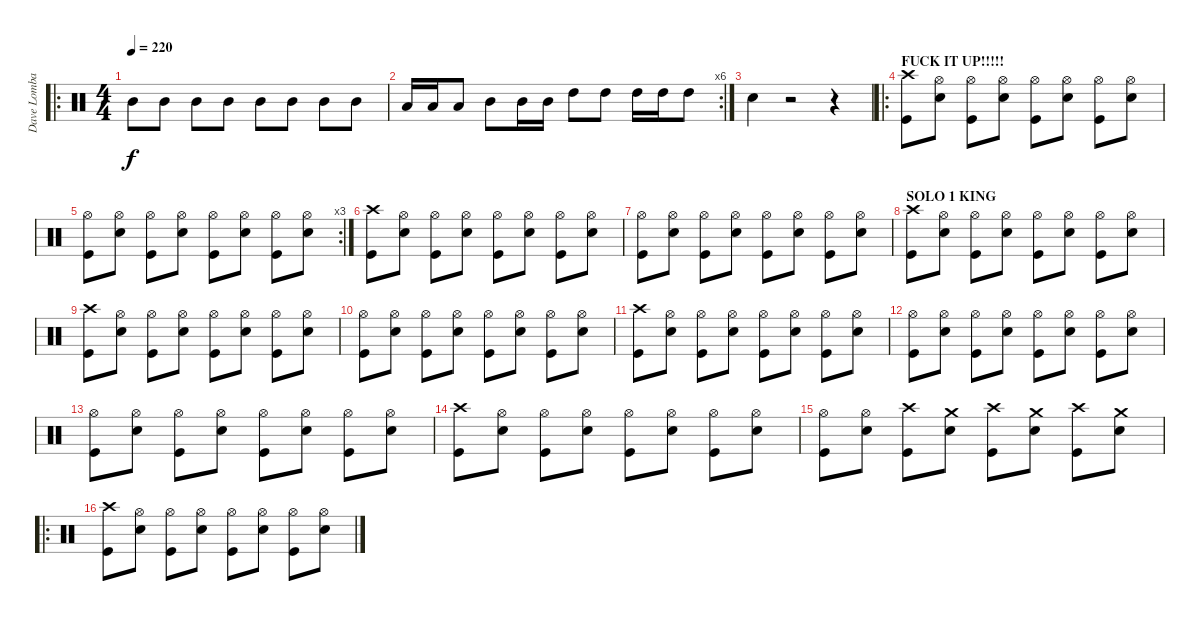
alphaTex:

\track ("Dave Lombardo" "Dave Lomba") {instrument percussion}
\staff {score}
\articulation defaults
\ro
\ts (4 4)
\tempo 220
\clef neutral
\ks c "Mid Tom (hit)".8{dy f} "Mid Tom (hit)".8 "Mid Tom (hit)".8 "Mid Tom (hit)".8 "Mid Tom (hit)".8 "Mid Tom (hit)".8 "Mid Tom (hit)".8 "Mid Tom (hit)".8
|
\rc 6 "Low Tom (hit)".16 "Low Tom (hit)".16 "Low Tom (hit)".8 "Mid Tom (hit)".8 "Mid Tom (hit)".16 "Mid Tom (hit)".16 "High Tom (hit)".8 "High Tom (hit)".8 "High Tom (hit)".16 "High Tom (hit)".16 "High Tom (hit)".8
|
"Snare (hit) 2".4 r.2 r.4 |
\ro
\section ("" "FUCK IT UP!!!!!")
("Crash high (hit)" "Kick (hit)").8 ("Hi-Hat (open)" "Snare (hit) 2").8 ("Hi-Hat (open)" "Kick (hit)").8 ("Hi-Hat (open)" "Snare (hit) 2").8 ("Hi-Hat (open)" "Kick (hit)").8 ("Hi-Hat (open)" "Snare (hit) 2").8 ("Hi-Hat (open)" "Kick (hit)").8 ("Hi-Hat (open)" "Snare (hit) 2").8 |
\rc 3
("Hi-Hat (open)" "Kick (hit)").8 ("Hi-Hat (open)" "Snare (hit) 2").8 ("Hi-Hat (open)" "Kick (hit)").8 ("Hi-Hat (open)" "Snare (hit) 2").8 ("Hi-Hat (open)" "Kick (hit)").8 ("Hi-Hat (open)" "Snare (hit) 2").8 ("Hi-Hat (open)" "Kick (hit)").8 ("Hi-Hat (open)" "Snare (hit) 2").8 |
("Crash high (hit)" "Kick (hit)").8 ("Hi-Hat (open)" "Snare (hit) 2").8 ("Hi-Hat (open)" "Kick (hit)").8 ("Hi-Hat (open)" "Snare (hit) 2").8 ("Hi-Hat (open)" "Kick (hit)").8 ("Hi-Hat (open)" "Snare (hit) 2").8 ("Hi-Hat (open)" "Kick (hit)").8 ("Hi-Hat (open)" "Snare (hit) 2").8 |
("Hi-Hat (open)" "Kick (hit)").8 ("Hi-Hat (open)" "Snare (hit) 2").8 ("Hi-Hat (open)" "Kick (hit)").8 ("Hi-Hat (open)" "Snare (hit) 2").8 ("Hi-Hat (open)" "Kick (hit)").8 ("Hi-Hat (open)" "Snare (hit) 2").8 ("Hi-Hat (open)" "Kick (hit)").8 ("Hi-Hat (open)" "Snare (hit) 2").8 |
\section ("" "SOLO 1 KING")
("Crash high (hit)" "Kick (hit)").8 ("Hi-Hat (open)" "Snare (hit) 2").8 ("Hi-Hat (open)" "Kick (hit)").8 ("Hi-Hat (open)" "Snare (hit) 2").8 ("Hi-Hat (open)" "Kick (hit)").8 ("Hi-Hat (open)" "Snare (hit) 2").8 ("Hi-Hat (open)" "Kick (hit)").8 ("Hi-Hat (open)" "Snare (hit) 2").8 |
("Crash high (hit)" "Kick (hit)").8 ("Hi-Hat (open)" "Snare (hit) 2").8 ("Hi-Hat (open)" "Kick (hit)").8 ("Hi-Hat (open)" "Snare (hit) 2").8 ("Hi-Hat (open)" "Kick (hit)").8 ("Hi-Hat (open)" "Snare (hit) 2").8 ("Hi-Hat (open)" "Kick (hit)").8 ("Hi-Hat (open)" "Snare (hit) 2").8 |
("Hi-Hat (open)" "Kick (hit)").8 ("Hi-Hat (open)" "Snare (hit) 2").8 ("Hi-Hat (open)" "Kick (hit)").8 ("Hi-Hat (open)" "Snare (hit) 2").8 ("Hi-Hat (open)" "Kick (hit)").8 ("Hi-Hat (open)" "Snare (hit) 2").8 ("Hi-Hat (open)" "Kick (hit)").8 ("Hi-Hat (open)" "Snare (hit) 2").8 |
("Crash high (hit)" "Kick (hit)").8 ("Hi-Hat (open)" "Snare (hit) 2").8 ("Hi-Hat (open)" "Kick (hit)").8 ("Hi-Hat (open)" "Snare (hit) 2").8 ("Hi-Hat (open)" "Kick (hit)").8 ("Hi-Hat (open)" "Snare (hit) 2").8 ("Hi-Hat (open)" "Kick (hit)").8 ("Hi-Hat (open)" "Snare (hit) 2").8 |
("Hi-Hat (open)" "Kick (hit)").8 ("Hi-Hat (open)" "Snare (hit) 2").8 ("Hi-Hat (open)" "Kick (hit)").8 ("Hi-Hat (open)" "Snare (hit) 2").8 ("Hi-Hat (open)" "Kick (hit)").8 ("Hi-Hat (open)" "Snare (hit) 2").8 ("Hi-Hat (open)" "Kick (hit)").8 ("Hi-Hat (open)" "Snare (hit) 2").8 |
("Hi-Hat (open)" "Kick (hit)").8 ("Hi-Hat (open)" "Snare (hit) 2").8 ("Hi-Hat (open)" "Kick (hit)").8 ("Hi-Hat (open)" "Snare (hit) 2").8 ("Hi-Hat (open)" "Kick (hit)").8 ("Hi-Hat (open)" "Snare (hit) 2").8 ("Hi-Hat (open)" "Kick (hit)").8 ("Hi-Hat (open)" "Snare (hit) 2").8 |
("Crash high (hit)" "Kick (hit)").8 ("Hi-Hat (open)" "Snare (hit) 2").8 ("Hi-Hat (open)" "Kick (hit)").8 ("Hi-Hat (open)" "Snare (hit) 2").8 ("Hi-Hat (open)" "Kick (hit)").8 ("Hi-Hat (open)" "Snare (hit) 2").8 ("Hi-Hat (open)" "Kick (hit)").8 ("Hi-Hat (open)" "Snare (hit) 2").8 |
("Hi-Hat (open)" "Kick (hit)").8 ("Hi-Hat (open)" "Snare (hit) 2").8 ("Crash high (hit)" "Kick (hit)").8 ("Crash medium (hit)" "Snare (hit) 2").8 ("Crash high (hit)" "Kick (hit)").8 ("Crash medium (hit)" "Snare (hit) 2").8 ("Crash high (hit)" "Kick (hit)").8 ("Crash medium (hit)" "Snare (hit) 2").8 |
\ro
("Crash high (hit)" "Kick (hit)").8 ("Hi-Hat (open)" "Snare (hit) 2").8 ("Hi-Hat (open)" "Kick (hit)").8 ("Hi-Hat (open)" "Snare (hit) 2").8 ("Hi-Hat (open)" "Kick (hit)").8 ("Hi-Hat (open)" "Snare (hit) 2").8 ("Hi-Hat (open)" "Kick (hit)").8 ("Hi-Hat (open)" "Snare (hit) 2").8
